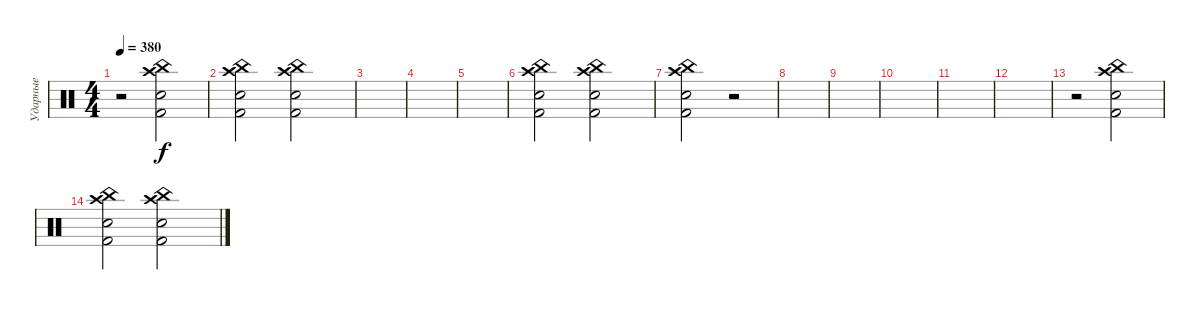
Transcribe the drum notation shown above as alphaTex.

\track ("Ударные" "Ударные") {instrument percussion}
\staff {score}
\articulation defaults
\ts (4 4)
\tempo 380
\clef neutral
\ks c
r.2{dy f} ("Kick (hit) 2" "Electric Snare (hit)" "Crash high (hit)" "China (hit)").2 |
("China (hit)" "Crash high (hit)" "Kick (hit) 2" "Electric Snare (hit)").2 ("Electric Snare (hit)" "Kick (hit) 2" "Crash high (hit)" "China (hit)").2 |
|
|
|
("China (hit)" "Crash high (hit)" "Kick (hit) 2" "Electric Snare (hit)").2 ("Kick (hit) 2" "Electric Snare (hit)" "Crash high (hit)" "China (hit)").2 |
("China (hit)" "Crash high (hit)" "Kick (hit) 2" "Electric Snare (hit)").2 r.2 |
|
|
|
|
|
r.2 ("Kick (hit) 2" "Electric Snare (hit)" "Crash high (hit)" "China (hit)").2 |
("China (hit)" "Crash high (hit)" "Kick (hit) 2" "Electric Snare (hit)").2 ("Electric Snare (hit)" "Kick (hit) 2" "Crash high (hit)" "China (hit)").2
